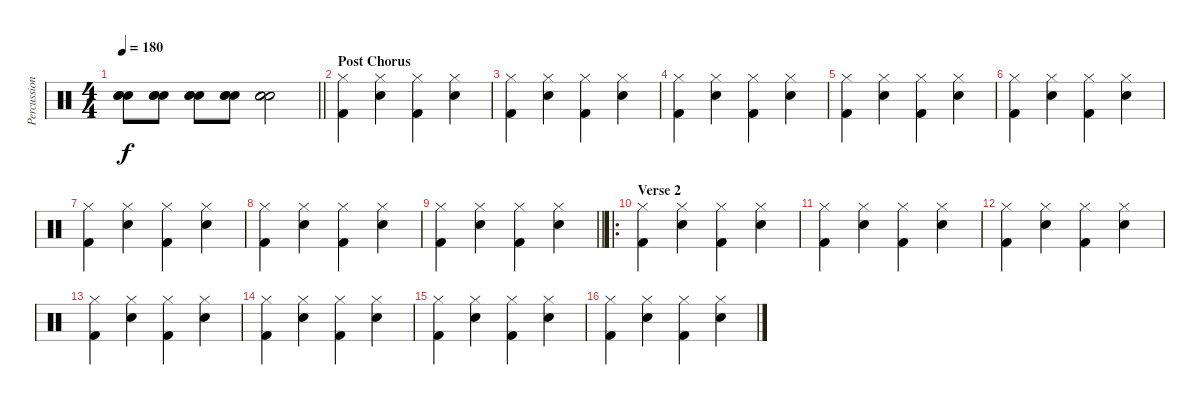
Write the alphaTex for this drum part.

\track ("Percussion" "Percussion") {instrument percussion}
\staff {score}
\articulation defaults
\ts (4 4)
\tempo 180
\clef neutral
\barLineRight lightlight
\ks c
("Electric Snare (hit)" "Electric Snare (hit)" "Electric Snare (hit)").8{dy f} ("Electric Snare (hit)" "Electric Snare (hit)" "Electric Snare (hit)").8 ("Electric Snare (hit)" "Electric Snare (hit)" "Electric Snare (hit)").8 ("Electric Snare (hit)" "Electric Snare (hit)" "Electric Snare (hit)").8 ("Electric Snare (hit)" "Electric Snare (hit)" "Electric Snare (hit)").2 |
\section ("" "Post Chorus")
("Hi-Hat (closed)" "Kick (hit) 2").4 ("Hi-Hat (closed)" "Electric Snare (hit)").4 ("Hi-Hat (closed)" "Kick (hit) 2").4 ("Hi-Hat (closed)" "Electric Snare (hit)").4 |
("Hi-Hat (closed)" "Kick (hit) 2").4 ("Hi-Hat (closed)" "Electric Snare (hit)").4 ("Hi-Hat (closed)" "Kick (hit) 2").4 ("Hi-Hat (closed)" "Electric Snare (hit)").4 |
("Hi-Hat (closed)" "Kick (hit) 2").4 ("Hi-Hat (closed)" "Electric Snare (hit)").4 ("Hi-Hat (closed)" "Kick (hit) 2").4 ("Hi-Hat (closed)" "Electric Snare (hit)").4 |
("Hi-Hat (closed)" "Kick (hit) 2").4 ("Hi-Hat (closed)" "Electric Snare (hit)").4 ("Hi-Hat (closed)" "Kick (hit) 2").4 ("Hi-Hat (closed)" "Electric Snare (hit)").4 |
("Hi-Hat (closed)" "Kick (hit) 2").4 ("Hi-Hat (closed)" "Electric Snare (hit)").4 ("Hi-Hat (closed)" "Kick (hit) 2").4 ("Hi-Hat (closed)" "Electric Snare (hit)").4 |
("Hi-Hat (closed)" "Kick (hit) 2").4 ("Hi-Hat (closed)" "Electric Snare (hit)").4 ("Hi-Hat (closed)" "Kick (hit) 2").4 ("Hi-Hat (closed)" "Electric Snare (hit)").4 |
("Hi-Hat (closed)" "Kick (hit) 2").4 ("Hi-Hat (closed)" "Electric Snare (hit)").4 ("Hi-Hat (closed)" "Kick (hit) 2").4 ("Hi-Hat (closed)" "Electric Snare (hit)").4 |
\barLineRight lightlight
("Hi-Hat (closed)" "Kick (hit) 2").4 ("Hi-Hat (closed)" "Electric Snare (hit)").4 ("Hi-Hat (closed)" "Kick (hit) 2").4 ("Hi-Hat (closed)" "Electric Snare (hit)").4 |
\ro
\section ("" "Verse 2")
("Hi-Hat (closed)" "Kick (hit) 2").4 ("Hi-Hat (closed)" "Electric Snare (hit)").4 ("Hi-Hat (closed)" "Kick (hit) 2").4 ("Hi-Hat (closed)" "Electric Snare (hit)").4 |
("Hi-Hat (closed)" "Kick (hit) 2").4 ("Hi-Hat (closed)" "Electric Snare (hit)").4 ("Hi-Hat (closed)" "Kick (hit) 2").4 ("Hi-Hat (closed)" "Electric Snare (hit)").4 |
("Hi-Hat (closed)" "Kick (hit) 2").4 ("Hi-Hat (closed)" "Electric Snare (hit)").4 ("Hi-Hat (closed)" "Kick (hit) 2").4 ("Hi-Hat (closed)" "Electric Snare (hit)").4 |
("Hi-Hat (closed)" "Kick (hit) 2").4 ("Hi-Hat (closed)" "Electric Snare (hit)").4 ("Hi-Hat (closed)" "Kick (hit) 2").4 ("Hi-Hat (closed)" "Electric Snare (hit)").4 |
("Hi-Hat (closed)" "Kick (hit) 2").4 ("Hi-Hat (closed)" "Electric Snare (hit)").4 ("Hi-Hat (closed)" "Kick (hit) 2").4 ("Hi-Hat (closed)" "Electric Snare (hit)").4 |
("Hi-Hat (closed)" "Kick (hit) 2").4 ("Hi-Hat (closed)" "Electric Snare (hit)").4 ("Hi-Hat (closed)" "Kick (hit) 2").4 ("Hi-Hat (closed)" "Electric Snare (hit)").4 |
("Hi-Hat (closed)" "Kick (hit) 2").4 ("Hi-Hat (closed)" "Electric Snare (hit)").4 ("Hi-Hat (closed)" "Kick (hit) 2").4 ("Hi-Hat (closed)" "Electric Snare (hit)").4
